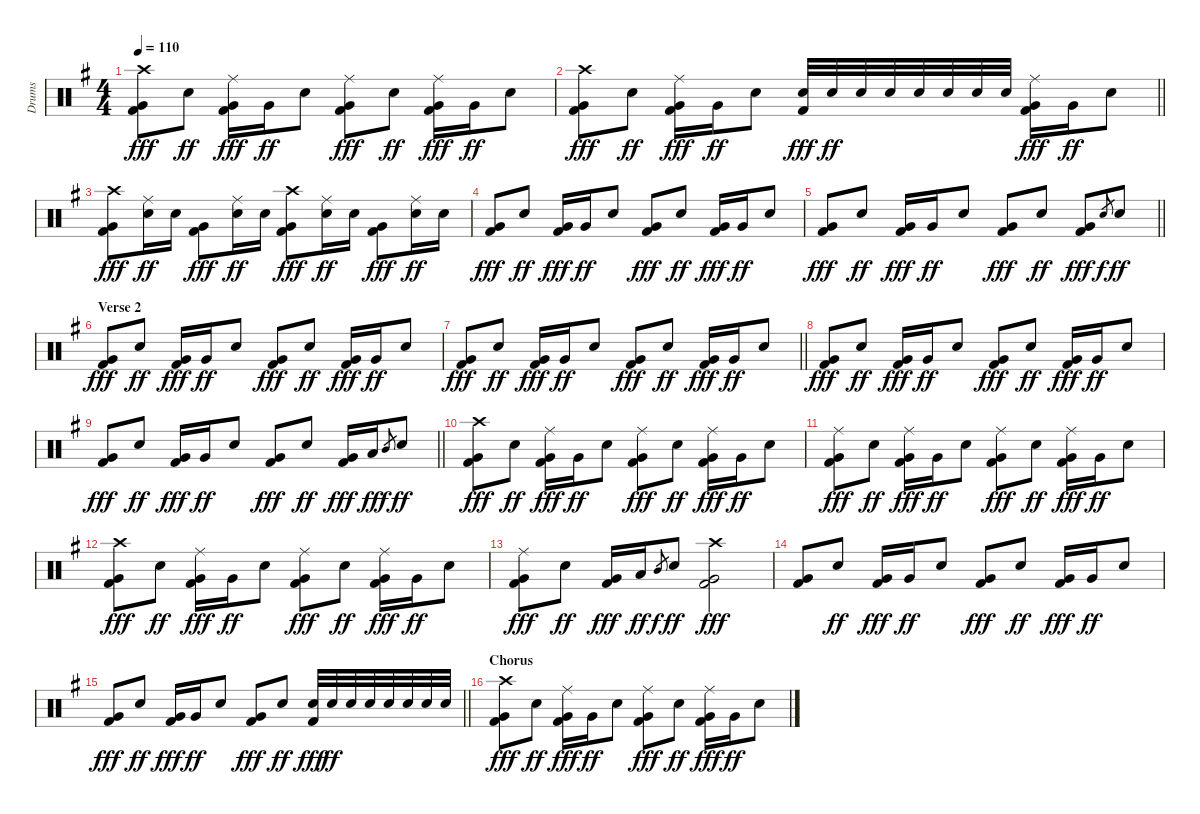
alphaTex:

\track ("Drums" "Drums") {instrument percussion}
\staff {score}
\articulation defaults
\ts (4 4)
\tempo 110
\clef neutral
\ks g
("Crash high (hit)" "Very Low Tom (hit)" "Kick (hit) 2").8{dy fff} "Snare (hit) 2".8{dy ff} ("Ride (middle)" "Very Low Tom (hit)" "Kick (hit) 2").16{dy fff} "Very Low Tom (hit)".16{dy ff} "Snare (hit) 2".8 ("Ride (middle)" "Very Low Tom (hit)" "Kick (hit) 2").8{dy fff} "Snare (hit) 2".8{dy ff} ("Ride (middle)" "Very Low Tom (hit)" "Kick (hit) 2").16{dy fff} "Very Low Tom (hit)".16{dy ff} "Snare (hit) 2".8 |
\barLineRight lightlight
("Crash high (hit)" "Very Low Tom (hit)" "Kick (hit) 2").8{dy fff} "Snare (hit) 2".8{dy ff} ("Ride (middle)" "Very Low Tom (hit)" "Kick (hit) 2").16{dy fff} "Very Low Tom (hit)".16{dy ff} "Snare (hit) 2".8 ("Snare (hit) 2" "Kick (hit) 2").32{dy fff} "Snare (hit) 2".32{dy ff} "Snare (hit) 2".32 "Snare (hit) 2".32 "Snare (hit) 2".32 "Snare (hit) 2".32 "Snare (hit) 2".32 "Snare (hit) 2".32 ("Ride (middle)" "Very Low Tom (hit)" "Kick (hit) 2").16{dy fff} "Very Low Tom (hit)".16{dy ff} "Snare (hit) 2".8 |
("Crash high (hit)" "Very Low Tom (hit)" "Kick (hit) 2").8{dy fff} ("Ride (middle)" "Snare (hit) 2").16{dy ff} "Snare (hit) 2".16 ("Very Low Tom (hit)" "Kick (hit) 2").8{dy fff} ("Ride (middle)" "Snare (hit) 2").16{dy ff} "Snare (hit) 2".16 ("Crash high (hit)" "Very Low Tom (hit)" "Kick (hit) 2").8{dy fff} ("Ride (middle)" "Snare (hit) 2").16{dy ff} "Snare (hit) 2".16 ("Very Low Tom (hit)" "Kick (hit) 2").8{dy fff} ("Ride (middle)" "Snare (hit) 2").16{dy ff} "Snare (hit) 2".16 |
("Very Low Tom (hit)" "Kick (hit) 2").8{dy fff} "Snare (hit) 2".8{dy ff} ("Very Low Tom (hit)" "Kick (hit) 2").16{dy fff} "Very Low Tom (hit)".16{dy ff} "Snare (hit) 2".8 ("Very Low Tom (hit)" "Kick (hit) 2").8{dy fff} "Snare (hit) 2".8{dy ff} ("Very Low Tom (hit)" "Kick (hit) 2").16{dy fff} "Very Low Tom (hit)".16{dy ff} "Snare (hit) 2".8 |
\barLineRight lightlight
("Very Low Tom (hit)" "Kick (hit) 2").8{dy fff} "Snare (hit) 2".8{dy ff} ("Very Low Tom (hit)" "Kick (hit) 2").16{dy fff} "Very Low Tom (hit)".16{dy ff} "Snare (hit) 2".8 ("Very Low Tom (hit)" "Kick (hit) 2").8{dy fff} "Snare (hit) 2".8{dy ff} ("Very Low Tom (hit)" "Kick (hit) 2").8{dy fff} "Snare (hit) 2".8{gr dy f} "Snare (hit) 2".8{dy ff} |
\section ("" "Verse 2")
("Very Low Tom (hit)" "Kick (hit) 2").8{dy fff} "Snare (hit) 2".8{dy ff} ("Very Low Tom (hit)" "Kick (hit) 2").16{dy fff} "Very Low Tom (hit)".16{dy ff} "Snare (hit) 2".8 ("Very Low Tom (hit)" "Kick (hit) 2").8{dy fff} "Snare (hit) 2".8{dy ff} ("Very Low Tom (hit)" "Kick (hit) 2").16{dy fff} "Very Low Tom (hit)".16{dy ff} "Snare (hit) 2".8 |
\barLineRight lightlight
("Very Low Tom (hit)" "Kick (hit) 2").8{dy fff} "Snare (hit) 2".8{dy ff} ("Very Low Tom (hit)" "Kick (hit) 2").16{dy fff} "Very Low Tom (hit)".16{dy ff} "Snare (hit) 2".8 ("Very Low Tom (hit)" "Kick (hit) 2").8{dy fff} "Snare (hit) 2".8{dy ff} ("Very Low Tom (hit)" "Kick (hit) 2").16{dy fff} "Very Low Tom (hit)".16{dy ff} "Snare (hit) 2".8 |
("Very Low Tom (hit)" "Kick (hit) 2").8{dy fff} "Snare (hit) 2".8{dy ff} ("Very Low Tom (hit)" "Kick (hit) 2").16{dy fff} "Very Low Tom (hit)".16{dy ff} "Snare (hit) 2".8 ("Very Low Tom (hit)" "Kick (hit) 2").8{dy fff} "Snare (hit) 2".8{dy ff} ("Very Low Tom (hit)" "Kick (hit) 2").16{dy fff} "Very Low Tom (hit)".16{dy ff} "Snare (hit) 2".8 |
\barLineRight lightlight
("Very Low Tom (hit)" "Kick (hit) 2").8{dy fff} "Snare (hit) 2".8{dy ff} ("Very Low Tom (hit)" "Kick (hit) 2").16{dy fff} "Very Low Tom (hit)".16{dy ff} "Snare (hit) 2".8 ("Very Low Tom (hit)" "Kick (hit) 2").8{dy fff} "Snare (hit) 2".8{dy ff} ("Very Low Tom (hit)" "Kick (hit) 2").16{dy fff} "Low Tom (hit)".16{dy ff} "Mid Tom (hit)".8{gr dy f} "Snare (hit) 2".8{dy ff} |
("Crash high (hit)" "Very Low Tom (hit)" "Kick (hit) 2").8{dy fff} "Snare (hit) 2".8{dy ff} ("Ride (middle)" "Very Low Tom (hit)" "Kick (hit) 2").16{dy fff} "Very Low Tom (hit)".16{dy ff} "Snare (hit) 2".8 ("Ride (middle)" "Very Low Tom (hit)" "Kick (hit) 2").8{dy fff} "Snare (hit) 2".8{dy ff} ("Ride (middle)" "Very Low Tom (hit)" "Kick (hit) 2").16{dy fff} "Very Low Tom (hit)".16{dy ff} "Snare (hit) 2".8 |
("Ride (middle)" "Very Low Tom (hit)" "Kick (hit) 2").8{dy fff} "Snare (hit) 2".8{dy ff} ("Ride (middle)" "Very Low Tom (hit)" "Kick (hit) 2").16{dy fff} "Very Low Tom (hit)".16{dy ff} "Snare (hit) 2".8 ("Ride (middle)" "Very Low Tom (hit)" "Kick (hit) 2").8{dy fff} "Snare (hit) 2".8{dy ff} ("Ride (middle)" "Very Low Tom (hit)" "Kick (hit) 2").16{dy fff} "Very Low Tom (hit)".16{dy ff} "Snare (hit) 2".8 |
("Crash high (hit)" "Very Low Tom (hit)" "Kick (hit) 2").8{dy fff} "Snare (hit) 2".8{dy ff} ("Ride (middle)" "Very Low Tom (hit)" "Kick (hit) 2").16{dy fff} "Very Low Tom (hit)".16{dy ff} "Snare (hit) 2".8 ("Ride (middle)" "Very Low Tom (hit)" "Kick (hit) 2").8{dy fff} "Snare (hit) 2".8{dy ff} ("Ride (middle)" "Very Low Tom (hit)" "Kick (hit) 2").16{dy fff} "Very Low Tom (hit)".16{dy ff} "Snare (hit) 2".8 |
("Ride (middle)" "Very Low Tom (hit)" "Kick (hit) 2").8{dy fff} "Snare (hit) 2".8{dy ff} ("Very Low Tom (hit)" "Kick (hit) 2").16{dy fff} "Low Tom (hit)".16{dy ff} "Mid Tom (hit)".8{gr dy f} "Snare (hit) 2".8{dy ff} ("Crash high (hit)" "Very Low Tom (hit)" "Kick (hit) 2").2{dy fff} |
("Very Low Tom (hit)" "Kick (hit) 2").8 "Snare (hit) 2".8{dy ff} ("Very Low Tom (hit)" "Kick (hit) 2").16{dy fff} "Very Low Tom (hit)".16{dy ff} "Snare (hit) 2".8 ("Very Low Tom (hit)" "Kick (hit) 2").8{dy fff} "Snare (hit) 2".8{dy ff} ("Very Low Tom (hit)" "Kick (hit) 2").16{dy fff} "Very Low Tom (hit)".16{dy ff} "Snare (hit) 2".8 |
\barLineRight lightlight
("Very Low Tom (hit)" "Kick (hit) 2").8{dy fff} "Snare (hit) 2".8{dy ff} ("Very Low Tom (hit)" "Kick (hit) 2").16{dy fff} "Very Low Tom (hit)".16{dy ff} "Snare (hit) 2".8 ("Very Low Tom (hit)" "Kick (hit) 2").8{dy fff} "Snare (hit) 2".8{dy ff} ("Snare (hit) 2" "Kick (hit) 2").32{dy fff} "Snare (hit) 2".32{dy ff} "Snare (hit) 2".32 "Snare (hit) 2".32 "Snare (hit) 2".32 "Snare (hit) 2".32 "Snare (hit) 2".32 "Snare (hit) 2".32 |
\section ("" "Chorus")
("Crash high (hit)" "Very Low Tom (hit)" "Kick (hit) 2").8{dy fff} "Snare (hit) 2".8{dy ff} ("Ride (middle)" "Very Low Tom (hit)" "Kick (hit) 2").16{dy fff} "Very Low Tom (hit)".16{dy ff} "Snare (hit) 2".8 ("Ride (middle)" "Very Low Tom (hit)" "Kick (hit) 2").8{dy fff} "Snare (hit) 2".8{dy ff} ("Ride (middle)" "Very Low Tom (hit)" "Kick (hit) 2").16{dy fff} "Very Low Tom (hit)".16{dy ff} "Snare (hit) 2".8
